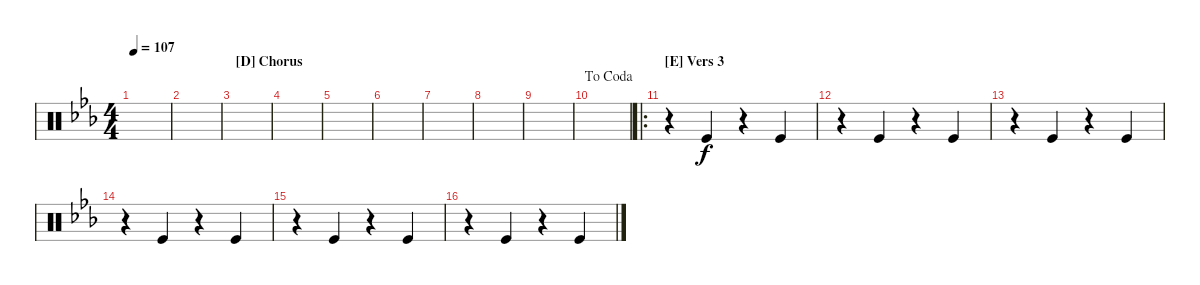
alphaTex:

\defaultSystemsLayout 4
\bracketExtendMode groupsimilarinstruments
\singleTrackTrackNamePolicy hidden
\firstSystemTrackNameOrientation horizontal
\otherSystemsTrackNameOrientation horizontal
\chordDiagramsInScore
\track ("Hand Clap" "H-Clap") {instrument percussion}
\staff {score}
\articulation defaults
\ts (4 4)
\tempo 107
\clef neutral
\ks cminor
|
|
\section ("D" "Chorus")
|
|
|
|
|
|
|
\jump dacoda
|
\ro
\section ("E" "Vers 3")
r.4 "Kick (hit)".4 r.4 "Kick (hit)".4 |
r.4 "Kick (hit)".4 r.4 "Kick (hit)".4 |
r.4 "Kick (hit)".4 r.4 "Kick (hit)".4 |
r.4 "Kick (hit)".4 r.4 "Kick (hit)".4 |
r.4 "Kick (hit)".4 r.4 "Kick (hit)".4 |
r.4 "Kick (hit)".4 r.4 "Kick (hit)".4
